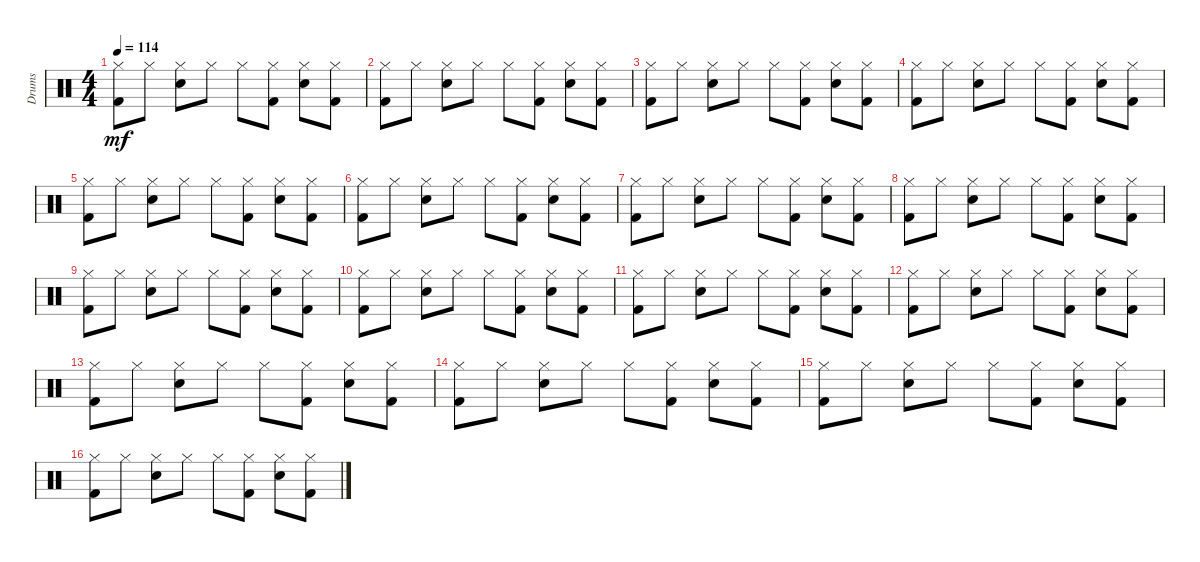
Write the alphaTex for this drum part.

\track ("Drums" "Drums") {instrument percussion}
\staff {score}
\articulation defaults
\ts (4 4)
\tempo 114
\clef neutral
\ks c
("Hi-Hat (closed)" "Kick (hit) 2").8{dy mf} "Hi-Hat (closed)".8 ("Hi-Hat (closed)" "Electric Snare (hit)").8 "Hi-Hat (closed)".8 "Hi-Hat (closed)".8 ("Hi-Hat (closed)" "Kick (hit) 2").8 ("Hi-Hat (closed)" "Electric Snare (hit)").8 ("Hi-Hat (closed)" "Kick (hit) 2").8 |
("Hi-Hat (closed)" "Kick (hit) 2").8 "Hi-Hat (closed)".8 ("Hi-Hat (closed)" "Electric Snare (hit)").8 "Hi-Hat (closed)".8 "Hi-Hat (closed)".8 ("Hi-Hat (closed)" "Kick (hit) 2").8 ("Hi-Hat (closed)" "Electric Snare (hit)").8 ("Hi-Hat (closed)" "Kick (hit) 2").8 |
("Hi-Hat (closed)" "Kick (hit) 2").8 "Hi-Hat (closed)".8 ("Hi-Hat (closed)" "Electric Snare (hit)").8 "Hi-Hat (closed)".8 "Hi-Hat (closed)".8 ("Hi-Hat (closed)" "Kick (hit) 2").8 ("Hi-Hat (closed)" "Electric Snare (hit)").8 ("Hi-Hat (closed)" "Kick (hit) 2").8 |
("Hi-Hat (closed)" "Kick (hit) 2").8 "Hi-Hat (closed)".8 ("Hi-Hat (closed)" "Electric Snare (hit)").8 "Hi-Hat (closed)".8 "Hi-Hat (closed)".8 ("Hi-Hat (closed)" "Kick (hit) 2").8 ("Hi-Hat (closed)" "Electric Snare (hit)").8 ("Hi-Hat (closed)" "Kick (hit) 2").8 |
("Hi-Hat (closed)" "Kick (hit) 2").8 "Hi-Hat (closed)".8 ("Hi-Hat (closed)" "Electric Snare (hit)").8 "Hi-Hat (closed)".8 "Hi-Hat (closed)".8 ("Hi-Hat (closed)" "Kick (hit) 2").8 ("Hi-Hat (closed)" "Electric Snare (hit)").8 ("Hi-Hat (closed)" "Kick (hit) 2").8 |
("Hi-Hat (closed)" "Kick (hit) 2").8 "Hi-Hat (closed)".8 ("Hi-Hat (closed)" "Electric Snare (hit)").8 "Hi-Hat (closed)".8 "Hi-Hat (closed)".8 ("Hi-Hat (closed)" "Kick (hit) 2").8 ("Hi-Hat (closed)" "Electric Snare (hit)").8 ("Hi-Hat (closed)" "Kick (hit) 2").8 |
("Hi-Hat (closed)" "Kick (hit) 2").8 "Hi-Hat (closed)".8 ("Hi-Hat (closed)" "Electric Snare (hit)").8 "Hi-Hat (closed)".8 "Hi-Hat (closed)".8 ("Hi-Hat (closed)" "Kick (hit) 2").8 ("Hi-Hat (closed)" "Electric Snare (hit)").8 ("Hi-Hat (closed)" "Kick (hit) 2").8 |
("Hi-Hat (closed)" "Kick (hit) 2").8 "Hi-Hat (closed)".8 ("Hi-Hat (closed)" "Electric Snare (hit)").8 "Hi-Hat (closed)".8 "Hi-Hat (closed)".8 ("Hi-Hat (closed)" "Kick (hit) 2").8 ("Hi-Hat (closed)" "Electric Snare (hit)").8 ("Hi-Hat (closed)" "Kick (hit) 2").8 |
("Hi-Hat (closed)" "Kick (hit) 2").8 "Hi-Hat (closed)".8 ("Hi-Hat (closed)" "Electric Snare (hit)").8 "Hi-Hat (closed)".8 "Hi-Hat (closed)".8 ("Hi-Hat (closed)" "Kick (hit) 2").8 ("Hi-Hat (closed)" "Electric Snare (hit)").8 ("Hi-Hat (closed)" "Kick (hit) 2").8 |
("Hi-Hat (closed)" "Kick (hit) 2").8 "Hi-Hat (closed)".8 ("Hi-Hat (closed)" "Electric Snare (hit)").8 "Hi-Hat (closed)".8 "Hi-Hat (closed)".8 ("Hi-Hat (closed)" "Kick (hit) 2").8 ("Hi-Hat (closed)" "Electric Snare (hit)").8 ("Hi-Hat (closed)" "Kick (hit) 2").8 |
("Hi-Hat (closed)" "Kick (hit) 2").8 "Hi-Hat (closed)".8 ("Hi-Hat (closed)" "Electric Snare (hit)").8 "Hi-Hat (closed)".8 "Hi-Hat (closed)".8 ("Hi-Hat (closed)" "Kick (hit) 2").8 ("Hi-Hat (closed)" "Electric Snare (hit)").8 ("Hi-Hat (closed)" "Kick (hit) 2").8 |
("Hi-Hat (closed)" "Kick (hit) 2").8 "Hi-Hat (closed)".8 ("Hi-Hat (closed)" "Electric Snare (hit)").8 "Hi-Hat (closed)".8 "Hi-Hat (closed)".8 ("Hi-Hat (closed)" "Kick (hit) 2").8 ("Hi-Hat (closed)" "Electric Snare (hit)").8 ("Hi-Hat (closed)" "Kick (hit) 2").8 |
("Hi-Hat (closed)" "Kick (hit) 2").8 "Hi-Hat (closed)".8 ("Hi-Hat (closed)" "Electric Snare (hit)").8 "Hi-Hat (closed)".8 "Hi-Hat (closed)".8 ("Hi-Hat (closed)" "Kick (hit) 2").8 ("Hi-Hat (closed)" "Electric Snare (hit)").8 ("Hi-Hat (closed)" "Kick (hit) 2").8 |
("Hi-Hat (closed)" "Kick (hit) 2").8 "Hi-Hat (closed)".8 ("Hi-Hat (closed)" "Electric Snare (hit)").8 "Hi-Hat (closed)".8 "Hi-Hat (closed)".8 ("Hi-Hat (closed)" "Kick (hit) 2").8 ("Hi-Hat (closed)" "Electric Snare (hit)").8 ("Hi-Hat (closed)" "Kick (hit) 2").8 |
("Hi-Hat (closed)" "Kick (hit) 2").8 "Hi-Hat (closed)".8 ("Hi-Hat (closed)" "Electric Snare (hit)").8 "Hi-Hat (closed)".8 "Hi-Hat (closed)".8 ("Hi-Hat (closed)" "Kick (hit) 2").8 ("Hi-Hat (closed)" "Electric Snare (hit)").8 ("Hi-Hat (closed)" "Kick (hit) 2").8 |
("Hi-Hat (closed)" "Kick (hit) 2").8 "Hi-Hat (closed)".8 ("Hi-Hat (closed)" "Electric Snare (hit)").8 "Hi-Hat (closed)".8 "Hi-Hat (closed)".8 ("Hi-Hat (closed)" "Kick (hit) 2").8 ("Hi-Hat (closed)" "Electric Snare (hit)").8 ("Hi-Hat (closed)" "Kick (hit) 2").8
